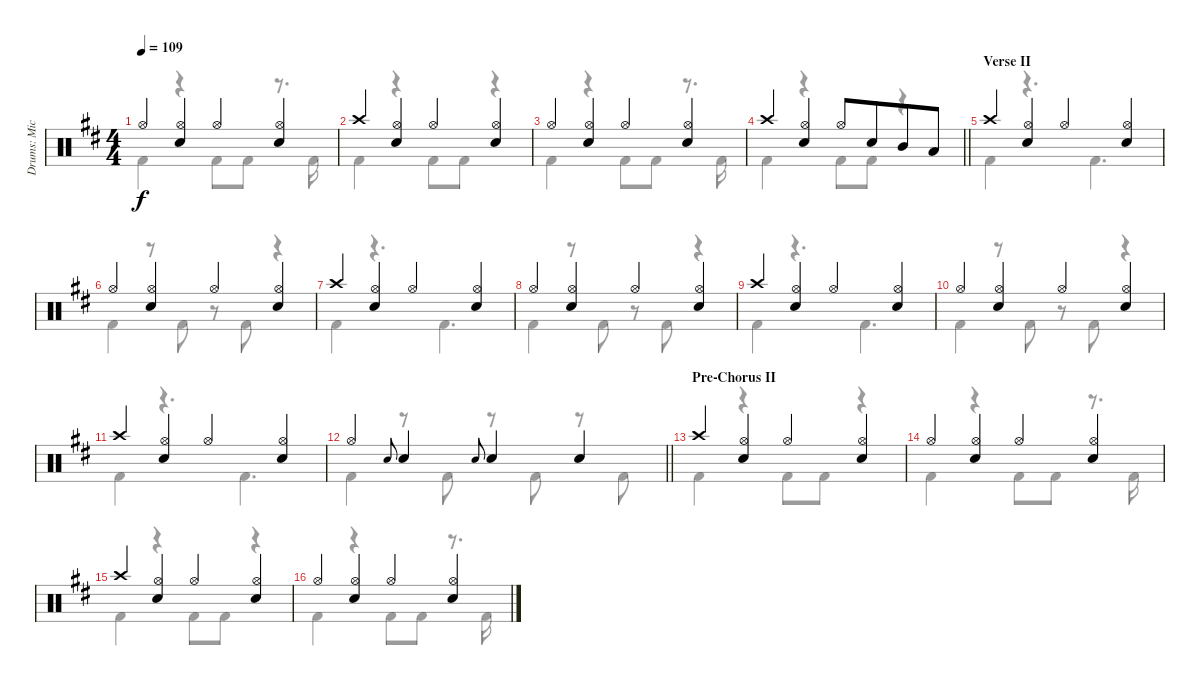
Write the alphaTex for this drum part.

\track ("Drums: Mick" "Drums: Mic") {instrument percussion}
\staff {score}
\articulation defaults
\voice
\ts (4 4)
\tempo 109
\clef neutral
\ks d "Hi-Hat (open)".4{dy f}
("Hi-Hat (open)" "Snare (hit) 2").4 "Hi-Hat (open)".4 ("Hi-Hat (open)" "Snare (hit) 2").4 |
"Crash high (hit)".4 ("Hi-Hat (open)" "Snare (hit) 2").4 "Hi-Hat (open)".4 ("Hi-Hat (open)" "Snare (hit) 2").4 |
"Hi-Hat (open)".4 ("Hi-Hat (open)" "Snare (hit) 2").4 "Hi-Hat (open)".4 ("Hi-Hat (open)" "Snare (hit) 2").4 |
\barLineRight lightlight "Crash high (hit)".4
("Hi-Hat (open)" "Snare (hit) 2").4 "Hi-Hat (open)".8 "Snare (hit) 2".8{beam merge} "Mid Tom (hit)".8 "Low Tom (hit)".8 |
\section ("" "Verse II")
"Crash high (hit)".4 ("Hi-Hat (open)" "Snare (hit) 2").4 "Hi-Hat (open)".4 ("Hi-Hat (open)" "Snare (hit) 2").4 |
"Hi-Hat (open)".4 ("Hi-Hat (open)" "Snare (hit) 2").4 "Hi-Hat (open)".4 ("Hi-Hat (open)" "Snare (hit) 2").4 |
"Crash high (hit)".4 ("Hi-Hat (open)" "Snare (hit) 2").4 "Hi-Hat (open)".4 ("Hi-Hat (open)" "Snare (hit) 2").4 |
"Hi-Hat (open)".4 ("Hi-Hat (open)" "Snare (hit) 2").4 "Hi-Hat (open)".4 ("Hi-Hat (open)" "Snare (hit) 2").4 |
"Crash high (hit)".4 ("Hi-Hat (open)" "Snare (hit) 2").4 "Hi-Hat (open)".4 ("Hi-Hat (open)" "Snare (hit) 2").4 |
"Hi-Hat (open)".4 ("Hi-Hat (open)" "Snare (hit) 2").4 "Hi-Hat (open)".4 ("Hi-Hat (open)" "Snare (hit) 2").4 |
"Crash high (hit)".4 ("Hi-Hat (open)" "Snare (hit) 2").4 "Hi-Hat (open)".4 ("Hi-Hat (open)" "Snare (hit) 2").4 |
\barLineRight lightlight "Hi-Hat (open)".4 "Electric Snare (hit)".8{gr onbeat} "Snare (hit) 2".4 "Electric Snare (hit)".8{gr onbeat} "Snare (hit) 2".4 "Snare (hit) 2".4
|
\section ("" "Pre-Chorus II")
"Crash high (hit)".4 ("Hi-Hat (open)" "Snare (hit) 2").4 "Hi-Hat (open)".4 ("Hi-Hat (open)" "Snare (hit) 2").4 |
"Hi-Hat (open)".4 ("Hi-Hat (open)" "Snare (hit) 2").4 "Hi-Hat (open)".4 ("Hi-Hat (open)" "Snare (hit) 2").4 |
"Crash high (hit)".4 ("Hi-Hat (open)" "Snare (hit) 2").4 "Hi-Hat (open)".4 ("Hi-Hat (open)" "Snare (hit) 2").4 |
"Hi-Hat (open)".4 ("Hi-Hat (open)" "Snare (hit) 2").4 "Hi-Hat (open)".4 ("Hi-Hat (open)" "Snare (hit) 2").4
\voice
\clef neutral
\ottava regular
\simile none
\ks d "Kick (hit) 2".4{dy f}
r.4 "Kick (hit) 2".8 "Kick (hit) 2".8 r.8{d} "Kick (hit) 2".16 |
"Kick (hit) 2".4 r.4 "Kick (hit) 2".8 "Kick (hit) 2".8 r.4 |
"Kick (hit) 2".4 r.4 "Kick (hit) 2".8 "Kick (hit) 2".8 r.8{d} "Kick (hit) 2".16 |
\barLineRight lightlight "Kick (hit) 2".4
r.4 "Kick (hit) 2".8 "Kick (hit) 2".8 r.4 |
"Kick (hit) 2".4 r.4{d} "Kick (hit) 2".4{d} |
"Kick (hit) 2".4 r.8 "Kick (hit) 2".8 r.8 "Kick (hit) 2".8 r.4 |
"Kick (hit) 2".4 r.4{d} "Kick (hit) 2".4{d} |
"Kick (hit) 2".4 r.8 "Kick (hit) 2".8 r.8 "Kick (hit) 2".8 r.4 |
"Kick (hit) 2".4 r.4{d} "Kick (hit) 2".4{d} |
"Kick (hit) 2".4 r.8 "Kick (hit) 2".8 r.8 "Kick (hit) 2".8 r.4 |
"Kick (hit) 2".4 r.4{d} "Kick (hit) 2".4{d} |
\barLineRight lightlight "Kick (hit) 2".4
r.8 "Kick (hit) 2".8 r.8 "Kick (hit) 2".8 r.8 "Kick (hit) 2".8 |
"Kick (hit) 2".4 r.4 "Kick (hit) 2".8 "Kick (hit) 2".8 r.4 |
"Kick (hit) 2".4 r.4 "Kick (hit) 2".8 "Kick (hit) 2".8 r.8{d} "Kick (hit) 2".16 |
"Kick (hit) 2".4 r.4 "Kick (hit) 2".8 "Kick (hit) 2".8 r.4 |
"Kick (hit) 2".4 r.4 "Kick (hit) 2".8 "Kick (hit) 2".8 r.8{d} "Kick (hit) 2".16
